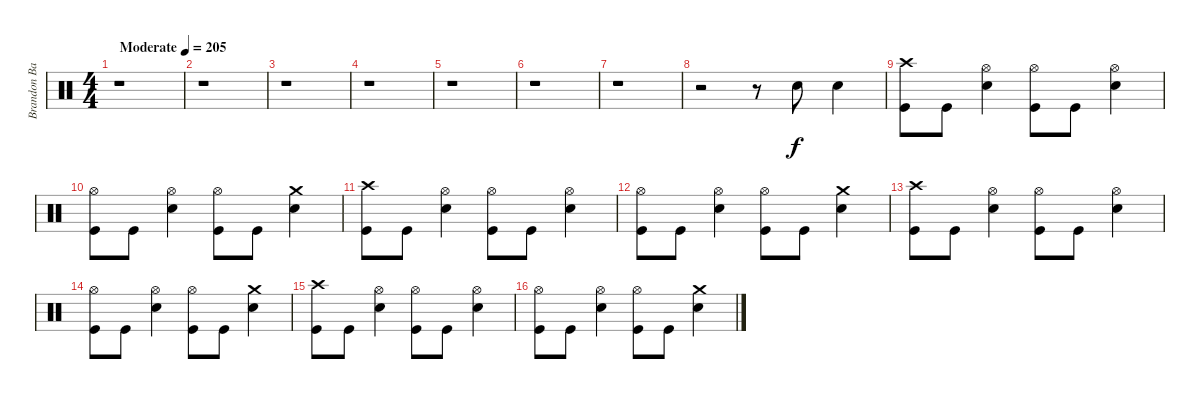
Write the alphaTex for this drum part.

\track ("Brandon Barnes" "Brandon Ba") {instrument percussion}
\staff {score}
\articulation defaults
\ts (4 4)
\tempo (205 "Moderate")
\clef neutral
\ks c
r.1{dy f} |
r.1 |
r.1 |
r.1 |
r.1 |
r.1 |
r.1 |
r.2 r.8 "Electric Snare (hit)".8 "Electric Snare (hit)".4 |
("Kick (hit)" "Crash high (hit)").8 "Kick (hit)".8 ("Electric Snare (hit)" "Hi-Hat (open)").4 ("Kick (hit)" "Hi-Hat (open)").8 "Kick (hit)".8 ("Electric Snare (hit)" "Hi-Hat (open)").4 |
("Kick (hit)" "Hi-Hat (open)").8 "Kick (hit)".8 ("Electric Snare (hit)" "Hi-Hat (open)").4 ("Kick (hit)" "Hi-Hat (open)").8 "Kick (hit)".8 ("Electric Snare (hit)" "Crash medium (hit)").4 |
("Kick (hit)" "Crash high (hit)").8 "Kick (hit)".8 ("Electric Snare (hit)" "Hi-Hat (open)").4 ("Kick (hit)" "Hi-Hat (open)").8 "Kick (hit)".8 ("Electric Snare (hit)" "Hi-Hat (open)").4 |
("Kick (hit)" "Hi-Hat (open)").8 "Kick (hit)".8 ("Electric Snare (hit)" "Hi-Hat (open)").4 ("Kick (hit)" "Hi-Hat (open)").8 "Kick (hit)".8 ("Electric Snare (hit)" "Crash medium (hit)").4 |
("Kick (hit)" "Crash high (hit)").8 "Kick (hit)".8 ("Electric Snare (hit)" "Hi-Hat (open)").4 ("Kick (hit)" "Hi-Hat (open)").8 "Kick (hit)".8 ("Electric Snare (hit)" "Hi-Hat (open)").4 |
("Kick (hit)" "Hi-Hat (open)").8 "Kick (hit)".8 ("Electric Snare (hit)" "Hi-Hat (open)").4 ("Kick (hit)" "Hi-Hat (open)").8 "Kick (hit)".8 ("Electric Snare (hit)" "Crash medium (hit)").4 |
("Kick (hit)" "Crash high (hit)").8 "Kick (hit)".8 ("Electric Snare (hit)" "Hi-Hat (open)").4 ("Kick (hit)" "Hi-Hat (open)").8 "Kick (hit)".8 ("Electric Snare (hit)" "Hi-Hat (open)").4 |
("Kick (hit)" "Hi-Hat (open)").8 "Kick (hit)".8 ("Electric Snare (hit)" "Hi-Hat (open)").4 ("Kick (hit)" "Hi-Hat (open)").8 "Kick (hit)".8 ("Electric Snare (hit)" "Crash medium (hit)").4
